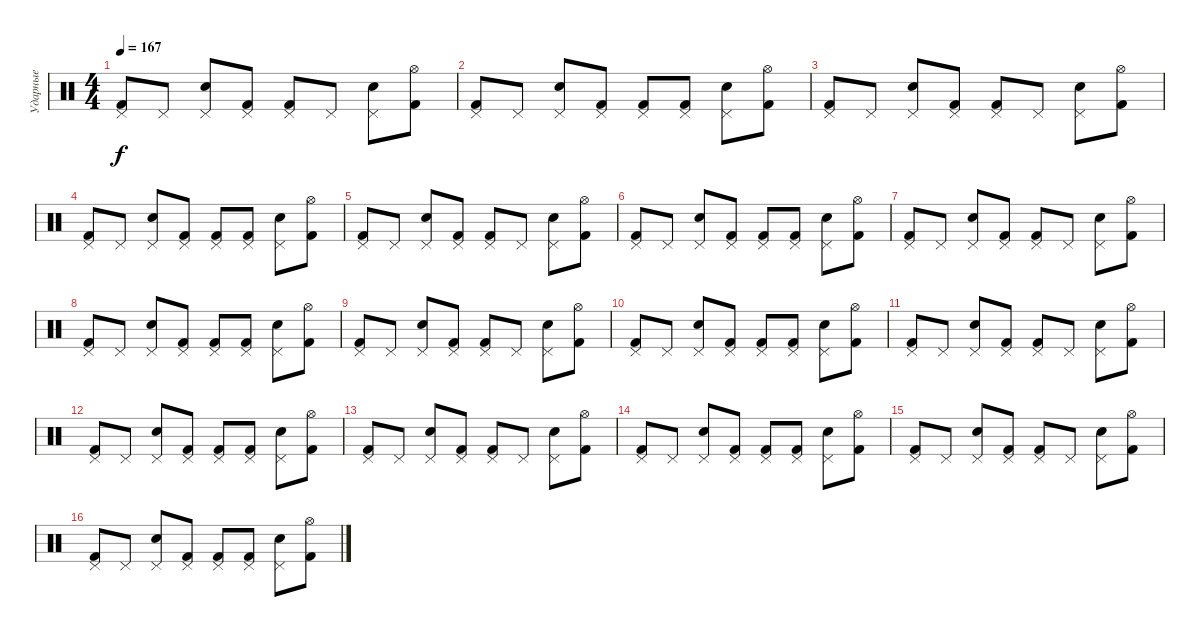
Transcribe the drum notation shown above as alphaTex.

\track ("Ударные" "Ударные") {instrument percussion}
\staff {score}
\articulation defaults
\ts (4 4)
\tempo 167
\clef neutral
\ks c
("Pedal Hi-Hat (hit)" "Kick (hit) 2").8{dy f} "Pedal Hi-Hat (hit)".8 ("Pedal Hi-Hat (hit)" "Electric Snare (hit)").8 ("Pedal Hi-Hat (hit)" "Kick (hit) 2").8 ("Pedal Hi-Hat (hit)" "Kick (hit) 2").8 "Pedal Hi-Hat (hit)".8 ("Pedal Hi-Hat (hit)" "Electric Snare (hit)").8 ("Hi-Hat (open)" "Kick (hit) 2").8 |
("Pedal Hi-Hat (hit)" "Kick (hit) 2").8 "Pedal Hi-Hat (hit)".8 ("Pedal Hi-Hat (hit)" "Electric Snare (hit)").8 ("Pedal Hi-Hat (hit)" "Kick (hit) 2").8 ("Pedal Hi-Hat (hit)" "Kick (hit) 2").8 ("Pedal Hi-Hat (hit)" "Kick (hit) 2").8 ("Pedal Hi-Hat (hit)" "Electric Snare (hit)").8 ("Hi-Hat (open)" "Kick (hit) 2").8 |
("Pedal Hi-Hat (hit)" "Kick (hit) 2").8 "Pedal Hi-Hat (hit)".8 ("Pedal Hi-Hat (hit)" "Electric Snare (hit)").8 ("Pedal Hi-Hat (hit)" "Kick (hit) 2").8 ("Pedal Hi-Hat (hit)" "Kick (hit) 2").8 "Pedal Hi-Hat (hit)".8 ("Pedal Hi-Hat (hit)" "Electric Snare (hit)").8 ("Hi-Hat (open)" "Kick (hit) 2").8 |
("Pedal Hi-Hat (hit)" "Kick (hit) 2").8 "Pedal Hi-Hat (hit)".8 ("Pedal Hi-Hat (hit)" "Electric Snare (hit)").8 ("Pedal Hi-Hat (hit)" "Kick (hit) 2").8 ("Pedal Hi-Hat (hit)" "Kick (hit) 2").8 ("Pedal Hi-Hat (hit)" "Kick (hit) 2").8 ("Pedal Hi-Hat (hit)" "Electric Snare (hit)").8 ("Hi-Hat (open)" "Kick (hit) 2").8 |
("Pedal Hi-Hat (hit)" "Kick (hit) 2").8 "Pedal Hi-Hat (hit)".8 ("Pedal Hi-Hat (hit)" "Electric Snare (hit)").8 ("Pedal Hi-Hat (hit)" "Kick (hit) 2").8 ("Pedal Hi-Hat (hit)" "Kick (hit) 2").8 "Pedal Hi-Hat (hit)".8 ("Pedal Hi-Hat (hit)" "Electric Snare (hit)").8 ("Hi-Hat (open)" "Kick (hit) 2").8 |
("Pedal Hi-Hat (hit)" "Kick (hit) 2").8 "Pedal Hi-Hat (hit)".8 ("Pedal Hi-Hat (hit)" "Electric Snare (hit)").8 ("Pedal Hi-Hat (hit)" "Kick (hit) 2").8 ("Pedal Hi-Hat (hit)" "Kick (hit) 2").8 ("Pedal Hi-Hat (hit)" "Kick (hit) 2").8 ("Pedal Hi-Hat (hit)" "Electric Snare (hit)").8 ("Hi-Hat (open)" "Kick (hit) 2").8 |
("Pedal Hi-Hat (hit)" "Kick (hit) 2").8 "Pedal Hi-Hat (hit)".8 ("Pedal Hi-Hat (hit)" "Electric Snare (hit)").8 ("Pedal Hi-Hat (hit)" "Kick (hit) 2").8 ("Pedal Hi-Hat (hit)" "Kick (hit) 2").8 "Pedal Hi-Hat (hit)".8 ("Pedal Hi-Hat (hit)" "Electric Snare (hit)").8 ("Hi-Hat (open)" "Kick (hit) 2").8 |
("Pedal Hi-Hat (hit)" "Kick (hit) 2").8 "Pedal Hi-Hat (hit)".8 ("Pedal Hi-Hat (hit)" "Electric Snare (hit)").8 ("Pedal Hi-Hat (hit)" "Kick (hit) 2").8 ("Pedal Hi-Hat (hit)" "Kick (hit) 2").8 ("Pedal Hi-Hat (hit)" "Kick (hit) 2").8 ("Pedal Hi-Hat (hit)" "Electric Snare (hit)").8 ("Hi-Hat (open)" "Kick (hit) 2").8 |
("Pedal Hi-Hat (hit)" "Kick (hit) 2").8 "Pedal Hi-Hat (hit)".8 ("Pedal Hi-Hat (hit)" "Electric Snare (hit)").8 ("Pedal Hi-Hat (hit)" "Kick (hit) 2").8 ("Pedal Hi-Hat (hit)" "Kick (hit) 2").8 "Pedal Hi-Hat (hit)".8 ("Pedal Hi-Hat (hit)" "Electric Snare (hit)").8 ("Hi-Hat (open)" "Kick (hit) 2").8 |
("Pedal Hi-Hat (hit)" "Kick (hit) 2").8 "Pedal Hi-Hat (hit)".8 ("Pedal Hi-Hat (hit)" "Electric Snare (hit)").8 ("Pedal Hi-Hat (hit)" "Kick (hit) 2").8 ("Pedal Hi-Hat (hit)" "Kick (hit) 2").8 ("Pedal Hi-Hat (hit)" "Kick (hit) 2").8 ("Pedal Hi-Hat (hit)" "Electric Snare (hit)").8 ("Hi-Hat (open)" "Kick (hit) 2").8 |
("Pedal Hi-Hat (hit)" "Kick (hit) 2").8 "Pedal Hi-Hat (hit)".8 ("Pedal Hi-Hat (hit)" "Electric Snare (hit)").8 ("Pedal Hi-Hat (hit)" "Kick (hit) 2").8 ("Pedal Hi-Hat (hit)" "Kick (hit) 2").8 "Pedal Hi-Hat (hit)".8 ("Pedal Hi-Hat (hit)" "Electric Snare (hit)").8 ("Hi-Hat (open)" "Kick (hit) 2").8 |
("Pedal Hi-Hat (hit)" "Kick (hit) 2").8 "Pedal Hi-Hat (hit)".8 ("Pedal Hi-Hat (hit)" "Electric Snare (hit)").8 ("Pedal Hi-Hat (hit)" "Kick (hit) 2").8 ("Pedal Hi-Hat (hit)" "Kick (hit) 2").8 ("Pedal Hi-Hat (hit)" "Kick (hit) 2").8 ("Pedal Hi-Hat (hit)" "Electric Snare (hit)").8 ("Hi-Hat (open)" "Kick (hit) 2").8 |
("Pedal Hi-Hat (hit)" "Kick (hit) 2").8 "Pedal Hi-Hat (hit)".8 ("Pedal Hi-Hat (hit)" "Electric Snare (hit)").8 ("Pedal Hi-Hat (hit)" "Kick (hit) 2").8 ("Pedal Hi-Hat (hit)" "Kick (hit) 2").8 "Pedal Hi-Hat (hit)".8 ("Pedal Hi-Hat (hit)" "Electric Snare (hit)").8 ("Hi-Hat (open)" "Kick (hit) 2").8 |
("Pedal Hi-Hat (hit)" "Kick (hit) 2").8 "Pedal Hi-Hat (hit)".8 ("Pedal Hi-Hat (hit)" "Electric Snare (hit)").8 ("Pedal Hi-Hat (hit)" "Kick (hit) 2").8 ("Pedal Hi-Hat (hit)" "Kick (hit) 2").8 ("Pedal Hi-Hat (hit)" "Kick (hit) 2").8 ("Pedal Hi-Hat (hit)" "Electric Snare (hit)").8 ("Hi-Hat (open)" "Kick (hit) 2").8 |
("Pedal Hi-Hat (hit)" "Kick (hit) 2").8 "Pedal Hi-Hat (hit)".8 ("Pedal Hi-Hat (hit)" "Electric Snare (hit)").8 ("Pedal Hi-Hat (hit)" "Kick (hit) 2").8 ("Pedal Hi-Hat (hit)" "Kick (hit) 2").8 "Pedal Hi-Hat (hit)".8 ("Pedal Hi-Hat (hit)" "Electric Snare (hit)").8 ("Hi-Hat (open)" "Kick (hit) 2").8 |
("Pedal Hi-Hat (hit)" "Kick (hit) 2").8 "Pedal Hi-Hat (hit)".8 ("Pedal Hi-Hat (hit)" "Electric Snare (hit)").8 ("Pedal Hi-Hat (hit)" "Kick (hit) 2").8 ("Pedal Hi-Hat (hit)" "Kick (hit) 2").8 ("Pedal Hi-Hat (hit)" "Kick (hit) 2").8 ("Pedal Hi-Hat (hit)" "Electric Snare (hit)").8 ("Hi-Hat (open)" "Kick (hit) 2").8
